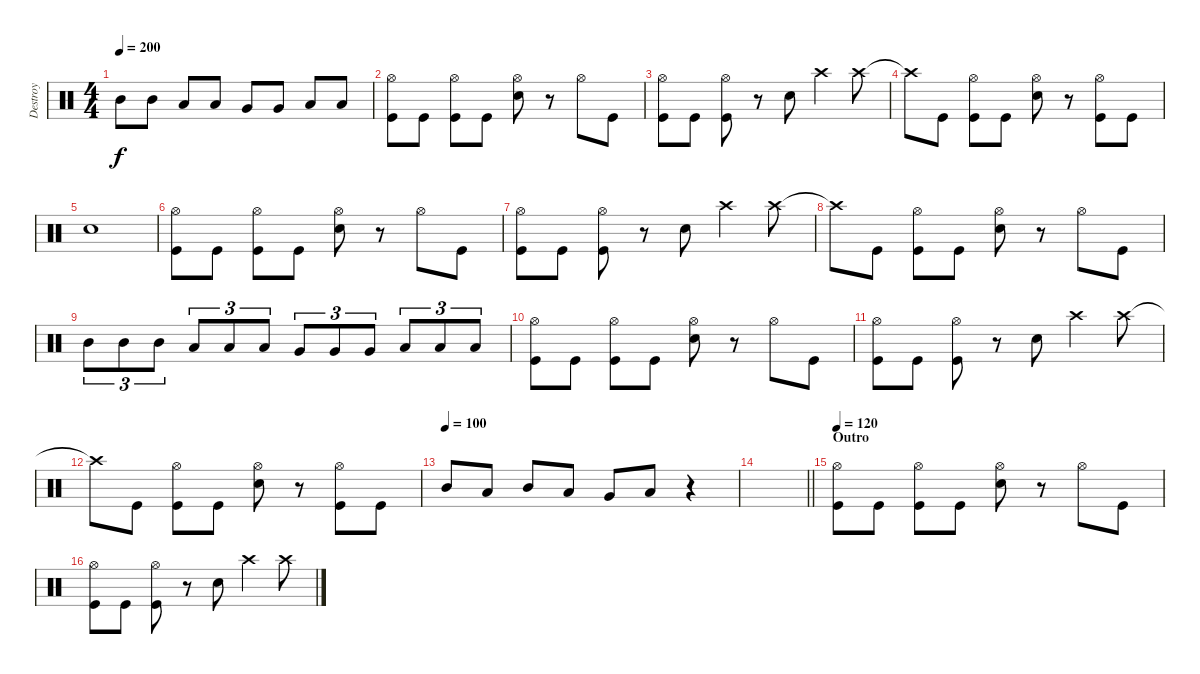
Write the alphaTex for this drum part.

\track ("Destroy" "Destroy") {instrument percussion}
\staff {score}
\articulation defaults
\ts (4 4)
\tempo 200
\clef neutral
\ks c "Mid Tom (hit)".8{dy f} "Mid Tom (hit)".8 "Low Tom (hit)".8 "Low Tom (hit)".8 "Very Low Tom (hit)".8 "Very Low Tom (hit)".8 "Low Floor Tom (hit)".8 "Low Floor Tom (hit)".8
|
("Hi-Hat (open)" "Kick (hit)").8 "Kick (hit)".8 ("Hi-Hat (open)" "Kick (hit)").8 "Kick (hit)".8 ("Hi-Hat (open)" "Snare (hit) 2").8 r.8 "Hi-Hat (open)".8 "Kick (hit)".8 |
("Hi-Hat (open)" "Kick (hit)").8 "Kick (hit)".8 ("Hi-Hat (open)" "Kick (hit)").8 r.8 "Snare (hit) 2".8 "Crash high (hit)".4 "Crash high (hit)".8 |
"Crash high (hit)"{t}.8 "Kick (hit)".8 ("Hi-Hat (open)" "Kick (hit)").8 "Kick (hit)".8 ("Hi-Hat (open)" "Snare (hit) 2").8 r.8 ("Hi-Hat (open)" "Kick (hit)").8 "Kick (hit)".8 |
"Snare (hit) 2".1 |
("Hi-Hat (open)" "Kick (hit)").8 "Kick (hit)".8 ("Hi-Hat (open)" "Kick (hit)").8 "Kick (hit)".8 ("Hi-Hat (open)" "Snare (hit) 2").8 r.8 "Hi-Hat (open)".8 "Kick (hit)".8 |
("Hi-Hat (open)" "Kick (hit)").8 "Kick (hit)".8 ("Hi-Hat (open)" "Kick (hit)").8 r.8 "Snare (hit) 2".8 "Crash high (hit)".4 "Crash high (hit)".8 |
"Crash high (hit)"{t}.8 "Kick (hit)".8 ("Hi-Hat (open)" "Kick (hit)").8 "Kick (hit)".8 ("Hi-Hat (open)" "Snare (hit) 2").8 r.8 "Hi-Hat (open)".8 "Kick (hit)".8 |
"Mid Tom (hit)".8{tu (3 2)} "Mid Tom (hit)".8{tu (3 2)} "Mid Tom (hit)".8{tu (3 2)} "Low Tom (hit)".8{tu (3 2)} "Low Tom (hit)".8{tu (3 2)} "Low Tom (hit)".8{tu (3 2)} "Very Low Tom (hit)".8{tu (3 2)} "Very Low Tom (hit)".8{tu (3 2)} "Very Low Tom (hit)".8{tu (3 2)} "Low Floor Tom (hit)".8{tu (3 2)} "Low Floor Tom (hit)".8{tu (3 2)} "Low Floor Tom (hit)".8{tu (3 2)} |
("Hi-Hat (open)" "Kick (hit)").8 "Kick (hit)".8 ("Hi-Hat (open)" "Kick (hit)").8 "Kick (hit)".8 ("Hi-Hat (open)" "Snare (hit) 2").8 r.8 "Hi-Hat (open)".8 "Kick (hit)".8 |
("Hi-Hat (open)" "Kick (hit)").8 "Kick (hit)".8 ("Hi-Hat (open)" "Kick (hit)").8 r.8 "Snare (hit) 2".8 "Crash high (hit)".4 "Crash high (hit)".8 |
"Crash high (hit)"{t}.8 "Kick (hit)".8 ("Hi-Hat (open)" "Kick (hit)").8 "Kick (hit)".8 ("Hi-Hat (open)" "Snare (hit) 2").8 r.8 ("Hi-Hat (open)" "Kick (hit)").8 "Kick (hit)".8 |
\tempo (100)
"Mid Tom (hit)".8 "Low Tom (hit)".8 "Mid Tom (hit)".8 "Low Tom (hit)".8 "Very Low Tom (hit)".8 "Low Floor Tom (hit)".8 r.4 |
\barLineRight lightlight
|
\section ("" "Outro")
\tempo 120
("Hi-Hat (open)" "Kick (hit)").8 "Kick (hit)".8 ("Hi-Hat (open)" "Kick (hit)").8 "Kick (hit)".8 ("Hi-Hat (open)" "Snare (hit) 2").8 r.8 "Hi-Hat (open)".8 "Kick (hit)".8 |
("Hi-Hat (open)" "Kick (hit)").8 "Kick (hit)".8 ("Hi-Hat (open)" "Kick (hit)").8 r.8 "Snare (hit) 2".8 "Crash high (hit)".4 "Crash high (hit)".8
